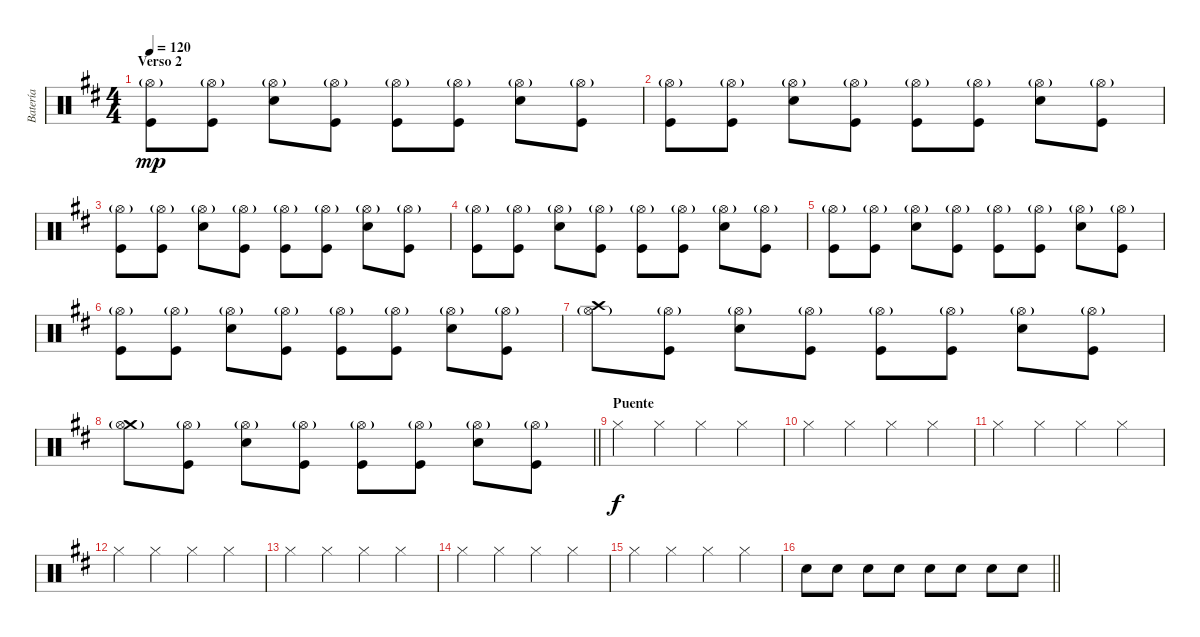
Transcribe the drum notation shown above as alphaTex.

\track ("Batería" "Batería") {instrument percussion}
\staff {score}
\articulation defaults
\ts (4 4)
\section ("" "Verso 2")
\tempo 120
\clef neutral
\ks d
("Kick (hit)" "Hi-Hat (open)"{g}).8{dy mp} ("Kick (hit)" "Hi-Hat (open)"{g}).8 ("Electric Snare (hit)" "Hi-Hat (open)"{g}).8 ("Kick (hit)" "Hi-Hat (open)"{g}).8 ("Kick (hit)" "Hi-Hat (open)"{g}).8 ("Kick (hit)" "Hi-Hat (open)"{g}).8 ("Electric Snare (hit)" "Hi-Hat (open)"{g}).8 ("Kick (hit)" "Hi-Hat (open)"{g}).8 |
("Kick (hit)" "Hi-Hat (open)"{g}).8 ("Kick (hit)" "Hi-Hat (open)"{g}).8 ("Electric Snare (hit)" "Hi-Hat (open)"{g}).8 ("Kick (hit)" "Hi-Hat (open)"{g}).8 ("Kick (hit)" "Hi-Hat (open)"{g}).8 ("Kick (hit)" "Hi-Hat (open)"{g}).8 ("Electric Snare (hit)" "Hi-Hat (open)"{g}).8 ("Kick (hit)" "Hi-Hat (open)"{g}).8 |
("Kick (hit)" "Hi-Hat (open)"{g}).8 ("Kick (hit)" "Hi-Hat (open)"{g}).8 ("Electric Snare (hit)" "Hi-Hat (open)"{g}).8 ("Kick (hit)" "Hi-Hat (open)"{g}).8 ("Kick (hit)" "Hi-Hat (open)"{g}).8 ("Kick (hit)" "Hi-Hat (open)"{g}).8 ("Electric Snare (hit)" "Hi-Hat (open)"{g}).8 ("Kick (hit)" "Hi-Hat (open)"{g}).8 |
("Kick (hit)" "Hi-Hat (open)"{g}).8 ("Kick (hit)" "Hi-Hat (open)"{g}).8 ("Electric Snare (hit)" "Hi-Hat (open)"{g}).8 ("Kick (hit)" "Hi-Hat (open)"{g}).8 ("Kick (hit)" "Hi-Hat (open)"{g}).8 ("Kick (hit)" "Hi-Hat (open)"{g}).8 ("Electric Snare (hit)" "Hi-Hat (open)"{g}).8 ("Kick (hit)" "Hi-Hat (open)"{g}).8 |
("Kick (hit)" "Hi-Hat (open)"{g}).8 ("Kick (hit)" "Hi-Hat (open)"{g}).8 ("Electric Snare (hit)" "Hi-Hat (open)"{g}).8 ("Kick (hit)" "Hi-Hat (open)"{g}).8 ("Kick (hit)" "Hi-Hat (open)"{g}).8 ("Kick (hit)" "Hi-Hat (open)"{g}).8 ("Electric Snare (hit)" "Hi-Hat (open)"{g}).8 ("Kick (hit)" "Hi-Hat (open)"{g}).8 |
("Kick (hit)" "Hi-Hat (open)"{g}).8 ("Kick (hit)" "Hi-Hat (open)"{g}).8 ("Electric Snare (hit)" "Hi-Hat (open)"{g}).8 ("Kick (hit)" "Hi-Hat (open)"{g}).8 ("Kick (hit)" "Hi-Hat (open)"{g}).8 ("Kick (hit)" "Hi-Hat (open)"{g}).8 ("Electric Snare (hit)" "Hi-Hat (open)"{g}).8 ("Kick (hit)" "Hi-Hat (open)"{g}).8 |
("Crash high (hit)" "Hi-Hat (open)"{g}).8 ("Kick (hit)" "Hi-Hat (open)"{g}).8 ("Electric Snare (hit)" "Hi-Hat (open)"{g}).8 ("Kick (hit)" "Hi-Hat (open)"{g}).8 ("Kick (hit)" "Hi-Hat (open)"{g}).8 ("Kick (hit)" "Hi-Hat (open)"{g}).8 ("Electric Snare (hit)" "Hi-Hat (open)"{g}).8 ("Kick (hit)" "Hi-Hat (open)"{g}).8 |
\barLineRight lightlight
("Crash medium (hit)" "Hi-Hat (open)"{g}).8 ("Kick (hit)" "Hi-Hat (open)"{g}).8 ("Electric Snare (hit)" "Hi-Hat (open)"{g}).8 ("Kick (hit)" "Hi-Hat (open)"{g}).8 ("Kick (hit)" "Hi-Hat (open)"{g}).8 ("Kick (hit)" "Hi-Hat (open)"{g}).8 ("Electric Snare (hit)" "Hi-Hat (open)"{g}).8 ("Kick (hit)" "Hi-Hat (open)"{g}).8 |
\section ("" "Puente")
"Hi-Hat (closed)".4{dy f} "Hi-Hat (closed)".4 "Hi-Hat (closed)".4 "Hi-Hat (closed)".4 |
"Hi-Hat (closed)".4 "Hi-Hat (closed)".4 "Hi-Hat (closed)".4 "Hi-Hat (closed)".4 |
"Hi-Hat (closed)".4 "Hi-Hat (closed)".4 "Hi-Hat (closed)".4 "Hi-Hat (closed)".4 |
"Hi-Hat (closed)".4 "Hi-Hat (closed)".4 "Hi-Hat (closed)".4 "Hi-Hat (closed)".4 |
"Hi-Hat (closed)".4 "Hi-Hat (closed)".4 "Hi-Hat (closed)".4 "Hi-Hat (closed)".4 |
"Hi-Hat (closed)".4 "Hi-Hat (closed)".4 "Hi-Hat (closed)".4 "Hi-Hat (closed)".4 |
"Hi-Hat (closed)".4 "Hi-Hat (closed)".4 "Hi-Hat (closed)".4 "Hi-Hat (closed)".4 |
\barLineRight lightlight "Snare (hit) 2".8 "Snare (hit) 2".8 "Snare (hit) 2".8 "Snare (hit) 2".8 "Snare (hit) 2".8 "Snare (hit) 2".8 "Snare (hit) 2".8 "Snare (hit) 2".8
